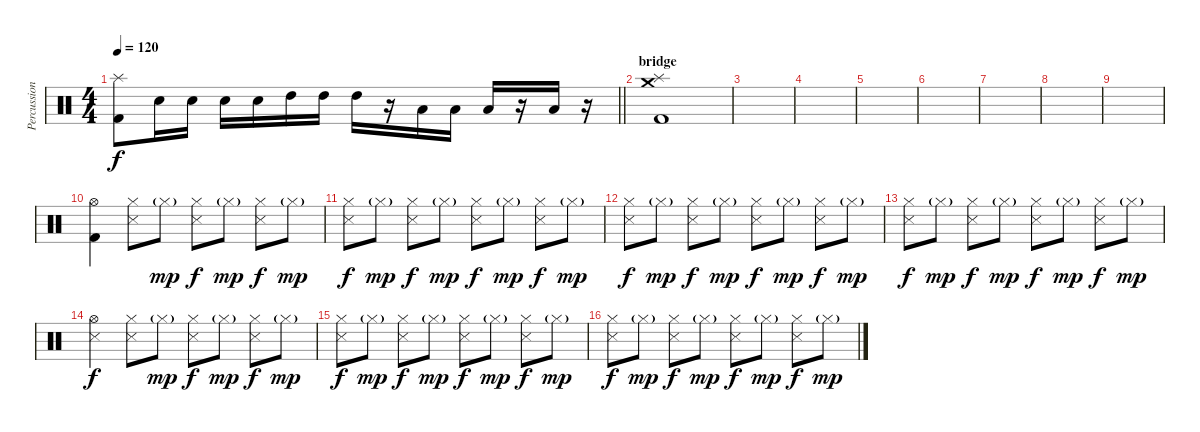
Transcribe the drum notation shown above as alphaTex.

\track ("Percussion" "Percussion") {instrument percussion}
\staff {score}
\articulation defaults
\ts (4 4)
\tempo 120
\clef neutral
\barLineRight lightlight
\ks c
("Splash (hit)" "Kick (hit) 2").8{dy f} "Electric Snare (hit)".16 "Electric Snare (hit)".16 "Electric Snare (hit)".16 "Electric Snare (hit)".16 "High Tom (hit)".16 "High Tom (hit)".16 "High Tom (hit)".16 r.16 "Low Tom (hit)".16 "Low Tom (hit)".16 "Low Tom (hit)".16 r.16 "Low Tom (hit)".16 r.16 |
\section ("" "bridge")
("Crash medium (hit)" "Splash (hit)" "Kick (hit) 2").1 |
|
|
|
|
|
|
|
("Hi-Hat (open)" "Kick (hit) 2").4 ("Snare (side stick) 3" "Hi-Hat (closed)").8 "Hi-Hat (closed)"{g}.8{dy mp} ("Snare (side stick) 3" "Hi-Hat (closed)").8{dy f} "Hi-Hat (closed)"{g}.8{dy mp} ("Snare (side stick) 3" "Hi-Hat (closed)").8{dy f} "Hi-Hat (closed)"{g}.8{dy mp} |
("Snare (side stick) 3" "Hi-Hat (closed)").8{dy f} "Hi-Hat (closed)"{g}.8{dy mp} ("Snare (side stick) 3" "Hi-Hat (closed)").8{dy f} "Hi-Hat (closed)"{g}.8{dy mp} ("Snare (side stick) 3" "Hi-Hat (closed)").8{dy f} "Hi-Hat (closed)"{g}.8{dy mp} ("Snare (side stick) 3" "Hi-Hat (closed)").8{dy f} "Hi-Hat (closed)"{g}.8{dy mp} |
("Snare (side stick) 3" "Hi-Hat (closed)").8{dy f} "Hi-Hat (closed)"{g}.8{dy mp} ("Snare (side stick) 3" "Hi-Hat (closed)").8{dy f} "Hi-Hat (closed)"{g}.8{dy mp} ("Snare (side stick) 3" "Hi-Hat (closed)").8{dy f} "Hi-Hat (closed)"{g}.8{dy mp} ("Snare (side stick) 3" "Hi-Hat (closed)").8{dy f} "Hi-Hat (closed)"{g}.8{dy mp} |
("Snare (side stick) 3" "Hi-Hat (closed)").8{dy f} "Hi-Hat (closed)"{g}.8{dy mp} ("Snare (side stick) 3" "Hi-Hat (closed)").8{dy f} "Hi-Hat (closed)"{g}.8{dy mp} ("Snare (side stick) 3" "Hi-Hat (closed)").8{dy f} "Hi-Hat (closed)"{g}.8{dy mp} ("Snare (side stick) 3" "Hi-Hat (closed)").8{dy f} "Hi-Hat (closed)"{g}.8{dy mp} |
("Hi-Hat (open)" "Snare (side stick) 3").4{dy f} ("Snare (side stick) 3" "Hi-Hat (closed)").8 "Hi-Hat (closed)"{g}.8{dy mp} ("Snare (side stick) 3" "Hi-Hat (closed)").8{dy f} "Hi-Hat (closed)"{g}.8{dy mp} ("Snare (side stick) 3" "Hi-Hat (closed)").8{dy f} "Hi-Hat (closed)"{g}.8{dy mp} |
("Snare (side stick) 3" "Hi-Hat (closed)").8{dy f} "Hi-Hat (closed)"{g}.8{dy mp} ("Snare (side stick) 3" "Hi-Hat (closed)").8{dy f} "Hi-Hat (closed)"{g}.8{dy mp} ("Snare (side stick) 3" "Hi-Hat (closed)").8{dy f} "Hi-Hat (closed)"{g}.8{dy mp} ("Snare (side stick) 3" "Hi-Hat (closed)").8{dy f} "Hi-Hat (closed)"{g}.8{dy mp} |
("Snare (side stick) 3" "Hi-Hat (closed)").8{dy f} "Hi-Hat (closed)"{g}.8{dy mp} ("Snare (side stick) 3" "Hi-Hat (closed)").8{dy f} "Hi-Hat (closed)"{g}.8{dy mp} ("Snare (side stick) 3" "Hi-Hat (closed)").8{dy f} "Hi-Hat (closed)"{g}.8{dy mp} ("Snare (side stick) 3" "Hi-Hat (closed)").8{dy f} "Hi-Hat (closed)"{g}.8{dy mp}
